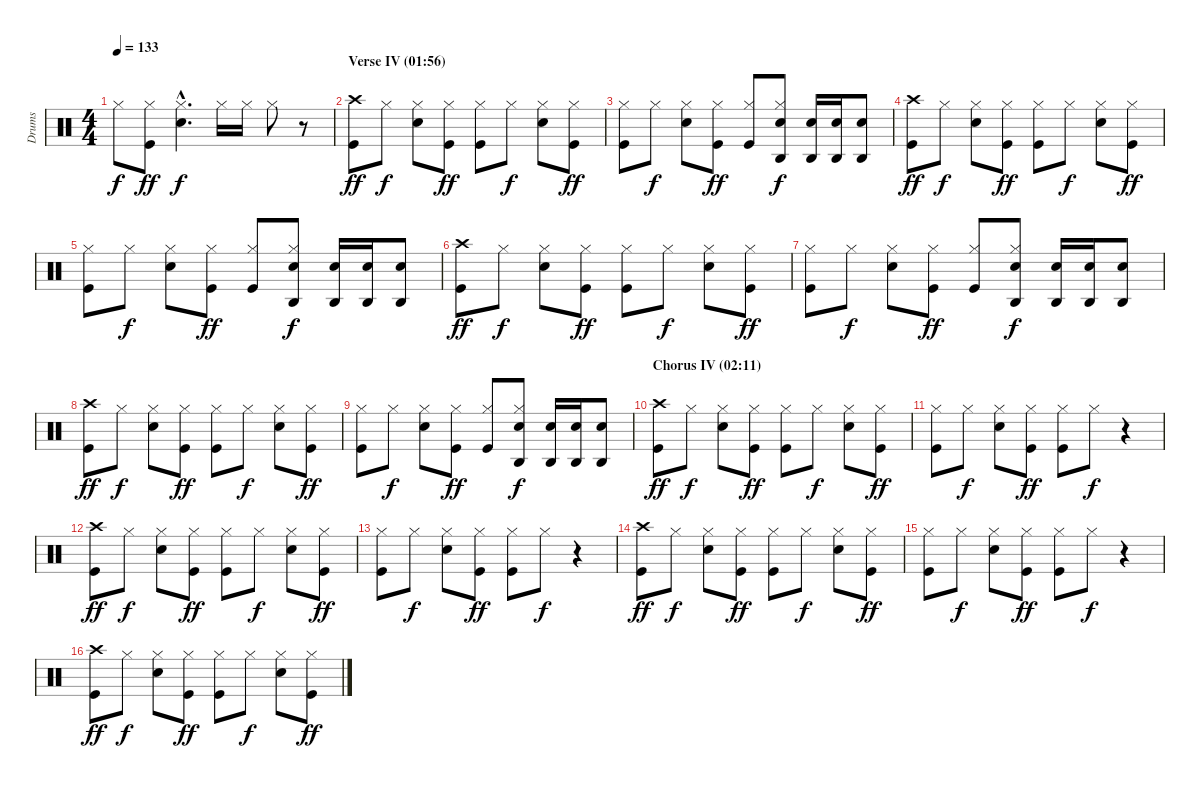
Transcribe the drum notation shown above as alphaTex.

\track ("Drums" "Drums") {instrument percussion}
\staff {score}
\articulation defaults
\ts (4 4)
\tempo 133
\clef neutral
\ks c "Hi-Hat (closed)".8{dy f}
("Hi-Hat (closed)" "Kick (hit)").8{dy ff} ("Hi-Hat (closed)"{hac} "Electric Snare (hit)"{hac}).4{d dy f} "Hi-Hat (closed)".16 "Hi-Hat (closed)".16 "Hi-Hat (closed)".8 r.8 |
\section ("" "Verse IV (01:56)")
("Crash high (hit)" "Kick (hit)").8{dy ff} "Hi-Hat (closed)".8{dy f} ("Hi-Hat (closed)" "Electric Snare (hit)").8 ("Hi-Hat (closed)" "Kick (hit)").8{dy ff} ("Hi-Hat (closed)" "Kick (hit)").8 "Hi-Hat (closed)".8{dy f} ("Hi-Hat (closed)" "Electric Snare (hit)").8 ("Hi-Hat (closed)" "Kick (hit)").8{dy ff} |
("Hi-Hat (closed)" "Kick (hit)").8 "Hi-Hat (closed)".8{dy f} ("Hi-Hat (closed)" "Electric Snare (hit)").8 ("Hi-Hat (closed)" "Kick (hit)").8{dy ff} ("Hi-Hat (closed)" "Kick (hit)").8 ("Agogo high (hit)" "Hi-Hat (closed)" "Electric Snare (hit)").8{dy f} ("Agogo high (hit)" "Electric Snare (hit)").16 ("Agogo high (hit)" "Electric Snare (hit)").16 ("Agogo high (hit)" "Electric Snare (hit)").8 |
("Crash high (hit)" "Kick (hit)").8{dy ff} "Hi-Hat (closed)".8{dy f} ("Hi-Hat (closed)" "Electric Snare (hit)").8 ("Hi-Hat (closed)" "Kick (hit)").8{dy ff} ("Hi-Hat (closed)" "Kick (hit)").8 "Hi-Hat (closed)".8{dy f} ("Hi-Hat (closed)" "Electric Snare (hit)").8 ("Hi-Hat (closed)" "Kick (hit)").8{dy ff} |
("Hi-Hat (closed)" "Kick (hit)").8 "Hi-Hat (closed)".8{dy f} ("Hi-Hat (closed)" "Electric Snare (hit)").8 ("Hi-Hat (closed)" "Kick (hit)").8{dy ff} ("Hi-Hat (closed)" "Kick (hit)").8 ("Agogo high (hit)" "Hi-Hat (closed)" "Electric Snare (hit)").8{dy f} ("Agogo high (hit)" "Electric Snare (hit)").16 ("Agogo high (hit)" "Electric Snare (hit)").16 ("Agogo high (hit)" "Electric Snare (hit)").8 |
("Crash high (hit)" "Kick (hit)").8{dy ff} "Hi-Hat (closed)".8{dy f} ("Hi-Hat (closed)" "Electric Snare (hit)").8 ("Hi-Hat (closed)" "Kick (hit)").8{dy ff} ("Hi-Hat (closed)" "Kick (hit)").8 "Hi-Hat (closed)".8{dy f} ("Hi-Hat (closed)" "Electric Snare (hit)").8 ("Hi-Hat (closed)" "Kick (hit)").8{dy ff} |
("Hi-Hat (closed)" "Kick (hit)").8 "Hi-Hat (closed)".8{dy f} ("Hi-Hat (closed)" "Electric Snare (hit)").8 ("Hi-Hat (closed)" "Kick (hit)").8{dy ff} ("Hi-Hat (closed)" "Kick (hit)").8 ("Agogo high (hit)" "Hi-Hat (closed)" "Electric Snare (hit)").8{dy f} ("Agogo high (hit)" "Electric Snare (hit)").16 ("Agogo high (hit)" "Electric Snare (hit)").16 ("Agogo high (hit)" "Electric Snare (hit)").8 |
("Crash high (hit)" "Kick (hit)").8{dy ff} "Hi-Hat (closed)".8{dy f} ("Hi-Hat (closed)" "Electric Snare (hit)").8 ("Hi-Hat (closed)" "Kick (hit)").8{dy ff} ("Hi-Hat (closed)" "Kick (hit)").8 "Hi-Hat (closed)".8{dy f} ("Hi-Hat (closed)" "Electric Snare (hit)").8 ("Hi-Hat (closed)" "Kick (hit)").8{dy ff} |
("Hi-Hat (closed)" "Kick (hit)").8 "Hi-Hat (closed)".8{dy f} ("Hi-Hat (closed)" "Electric Snare (hit)").8 ("Hi-Hat (closed)" "Kick (hit)").8{dy ff} ("Hi-Hat (closed)" "Kick (hit)").8 ("Agogo high (hit)" "Hi-Hat (closed)" "Electric Snare (hit)").8{dy f} ("Agogo high (hit)" "Electric Snare (hit)").16 ("Agogo high (hit)" "Electric Snare (hit)").16 ("Agogo high (hit)" "Electric Snare (hit)").8 |
\section ("" "Chorus IV (02:11)")
("Crash high (hit)" "Kick (hit)").8{dy ff} "Hi-Hat (closed)".8{dy f} ("Hi-Hat (closed)" "Electric Snare (hit)").8 ("Hi-Hat (closed)" "Kick (hit)").8{dy ff} ("Hi-Hat (closed)" "Kick (hit)").8 "Hi-Hat (closed)".8{dy f} ("Hi-Hat (closed)" "Electric Snare (hit)").8 ("Hi-Hat (closed)" "Kick (hit)").8{dy ff} |
("Hi-Hat (closed)" "Kick (hit)").8 "Hi-Hat (closed)".8{dy f} ("Hi-Hat (closed)" "Electric Snare (hit)").8 ("Hi-Hat (closed)" "Kick (hit)").8{dy ff} ("Hi-Hat (closed)" "Kick (hit)").8 "Hi-Hat (closed)".8{dy f} r.4 |
("Crash high (hit)" "Kick (hit)").8{dy ff} "Hi-Hat (closed)".8{dy f} ("Hi-Hat (closed)" "Electric Snare (hit)").8 ("Hi-Hat (closed)" "Kick (hit)").8{dy ff} ("Hi-Hat (closed)" "Kick (hit)").8 "Hi-Hat (closed)".8{dy f} ("Hi-Hat (closed)" "Electric Snare (hit)").8 ("Hi-Hat (closed)" "Kick (hit)").8{dy ff} |
("Hi-Hat (closed)" "Kick (hit)").8 "Hi-Hat (closed)".8{dy f} ("Hi-Hat (closed)" "Electric Snare (hit)").8 ("Hi-Hat (closed)" "Kick (hit)").8{dy ff} ("Hi-Hat (closed)" "Kick (hit)").8 "Hi-Hat (closed)".8{dy f} r.4 |
("Crash high (hit)" "Kick (hit)").8{dy ff} "Hi-Hat (closed)".8{dy f} ("Hi-Hat (closed)" "Electric Snare (hit)").8 ("Hi-Hat (closed)" "Kick (hit)").8{dy ff} ("Hi-Hat (closed)" "Kick (hit)").8 "Hi-Hat (closed)".8{dy f} ("Hi-Hat (closed)" "Electric Snare (hit)").8 ("Hi-Hat (closed)" "Kick (hit)").8{dy ff} |
("Hi-Hat (closed)" "Kick (hit)").8 "Hi-Hat (closed)".8{dy f} ("Hi-Hat (closed)" "Electric Snare (hit)").8 ("Hi-Hat (closed)" "Kick (hit)").8{dy ff} ("Hi-Hat (closed)" "Kick (hit)").8 "Hi-Hat (closed)".8{dy f} r.4 |
("Crash high (hit)" "Kick (hit)").8{dy ff} "Hi-Hat (closed)".8{dy f} ("Hi-Hat (closed)" "Electric Snare (hit)").8 ("Hi-Hat (closed)" "Kick (hit)").8{dy ff} ("Hi-Hat (closed)" "Kick (hit)").8 "Hi-Hat (closed)".8{dy f} ("Hi-Hat (closed)" "Electric Snare (hit)").8 ("Hi-Hat (closed)" "Kick (hit)").8{dy ff}
